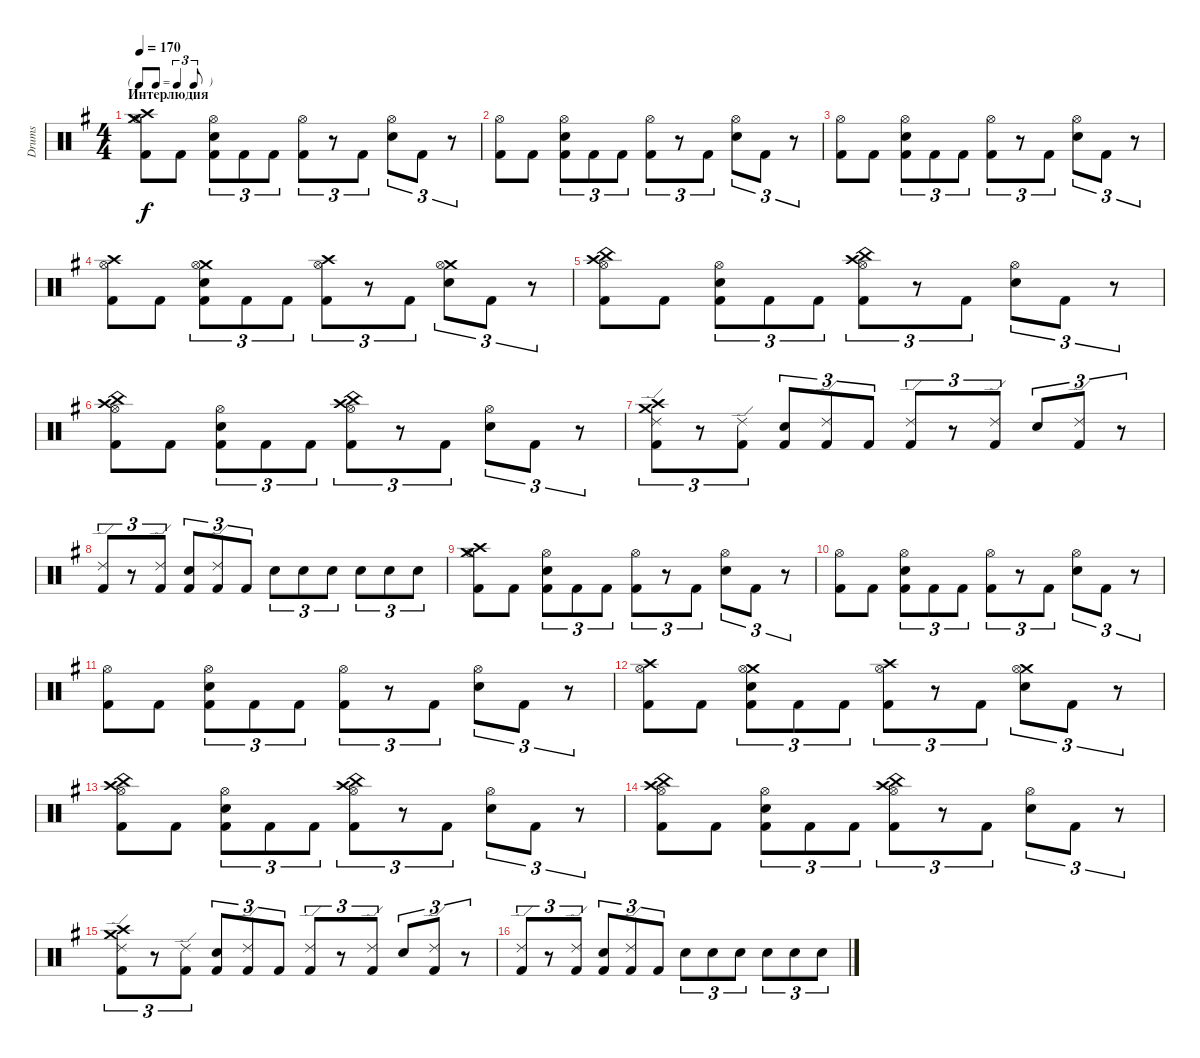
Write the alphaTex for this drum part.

\track ("Drums" "Drums") {instrument percussion}
\staff {score}
\articulation defaults
\ts (4 4)
\tf triplet8th
\section ("" "Интерлюдия")
\tempo 170
\clef neutral
\ks eminor
("Crash high (hit)" "Crash medium (hit)" "Hi-Hat (open)" "Kick (hit) 2").8{dy f} "Kick (hit) 2".8 ("Electric Snare (hit)" "Hi-Hat (open)" "Kick (hit) 2").8{tu (3 2)} "Kick (hit) 2".8{tu (3 2)} "Kick (hit) 2".8{tu (3 2)} ("Hi-Hat (open)" "Kick (hit) 2").8{tu (3 2)} r.8{tu (3 2)} "Kick (hit) 2".8{tu (3 2)} ("Electric Snare (hit)" "Hi-Hat (open)").8{tu (3 2)} "Kick (hit) 2".8{tu (3 2)} r.8{tu (3 2)} |
("Hi-Hat (open)" "Kick (hit) 2").8 "Kick (hit) 2".8 ("Electric Snare (hit)" "Hi-Hat (open)" "Kick (hit) 2").8{tu (3 2)} "Kick (hit) 2".8{tu (3 2)} "Kick (hit) 2".8{tu (3 2)} ("Hi-Hat (open)" "Kick (hit) 2").8{tu (3 2)} r.8{tu (3 2)} "Kick (hit) 2".8{tu (3 2)} ("Electric Snare (hit)" "Hi-Hat (open)").8{tu (3 2)} "Kick (hit) 2".8{tu (3 2)} r.8{tu (3 2)} |
("Hi-Hat (open)" "Kick (hit) 2").8 "Kick (hit) 2".8 ("Electric Snare (hit)" "Hi-Hat (open)" "Kick (hit) 2").8{tu (3 2)} "Kick (hit) 2".8{tu (3 2)} "Kick (hit) 2".8{tu (3 2)} ("Hi-Hat (open)" "Kick (hit) 2").8{tu (3 2)} r.8{tu (3 2)} "Kick (hit) 2".8{tu (3 2)} ("Electric Snare (hit)" "Hi-Hat (open)").8{tu (3 2)} "Kick (hit) 2".8{tu (3 2)} r.8{tu (3 2)} |
("Crash high (hit)" "Hi-Hat (open)" "Kick (hit) 2").8 "Kick (hit) 2".8 ("Crash medium (hit)" "Electric Snare (hit)" "Hi-Hat (open)" "Kick (hit) 2").8{tu (3 2)} "Kick (hit) 2".8{tu (3 2)} "Kick (hit) 2".8{tu (3 2)} ("Crash high (hit)" "Hi-Hat (open)" "Kick (hit) 2").8{tu (3 2)} r.8{tu (3 2)} "Kick (hit) 2".8{tu (3 2)} ("Crash medium (hit)" "Electric Snare (hit)" "Hi-Hat (open)").8{tu (3 2)} "Kick (hit) 2".8{tu (3 2)} r.8{tu (3 2)} |
("Crash high (hit)" "China (hit)" "Hi-Hat (open)" "Kick (hit) 2").8 "Kick (hit) 2".8 ("Electric Snare (hit)" "Hi-Hat (open)" "Kick (hit) 2").8{tu (3 2)} "Kick (hit) 2".8{tu (3 2)} "Kick (hit) 2".8{tu (3 2)} ("Crash high (hit)" "China (hit)" "Hi-Hat (open)" "Kick (hit) 2").8{tu (3 2)} r.8{tu (3 2)} "Kick (hit) 2".8{tu (3 2)} ("Electric Snare (hit)" "Hi-Hat (open)").8{tu (3 2)} "Kick (hit) 2".8{tu (3 2)} r.8{tu (3 2)} |
("Crash high (hit)" "China (hit)" "Hi-Hat (open)" "Kick (hit) 2").8 "Kick (hit) 2".8 ("Electric Snare (hit)" "Hi-Hat (open)" "Kick (hit) 2").8{tu (3 2)} "Kick (hit) 2".8{tu (3 2)} "Kick (hit) 2".8{tu (3 2)} ("Crash high (hit)" "China (hit)" "Hi-Hat (open)" "Kick (hit) 2").8{tu (3 2)} r.8{tu (3 2)} "Kick (hit) 2".8{tu (3 2)} ("Electric Snare (hit)" "Hi-Hat (open)").8{tu (3 2)} "Kick (hit) 2".8{tu (3 2)} r.8{tu (3 2)} |
("Crash high (hit)" "Crash medium (hit)" "Ride (edge) 2" "Kick (hit) 2").8{tu (3 2)} r.8{tu (3 2)} ("Ride (edge) 2" "Kick (hit) 2").8{tu (3 2)} ("Electric Snare (hit)" "Kick (hit) 2").8{tu (3 2)} ("Ride (edge) 2" "Kick (hit) 2").8{tu (3 2)} "Kick (hit) 2".8{tu (3 2)} ("Ride (edge) 2" "Kick (hit) 2").8{tu (3 2)} r.8{tu (3 2)} ("Ride (edge) 2" "Kick (hit) 2").8{tu (3 2)} "Electric Snare (hit)".8{tu (3 2)} ("Ride (edge) 2" "Kick (hit) 2").8{tu (3 2)} r.8{tu (3 2)} |
("Ride (edge) 2" "Kick (hit) 2").8{tu (3 2)} r.8{tu (3 2)} ("Ride (edge) 2" "Kick (hit) 2").8{tu (3 2)} ("Electric Snare (hit)" "Kick (hit) 2").8{tu (3 2)} ("Ride (edge) 2" "Kick (hit) 2").8{tu (3 2)} "Kick (hit) 2".8{tu (3 2)} "Electric Snare (hit)".8{tu (3 2)} "Electric Snare (hit)".8{tu (3 2)} "Electric Snare (hit)".8{tu (3 2)} "Electric Snare (hit)".8{tu (3 2)} "Electric Snare (hit)".8{tu (3 2)} "Electric Snare (hit)".8{tu (3 2)} |
("Crash high (hit)" "Crash medium (hit)" "Hi-Hat (open)" "Kick (hit) 2").8 "Kick (hit) 2".8 ("Electric Snare (hit)" "Hi-Hat (open)" "Kick (hit) 2").8{tu (3 2)} "Kick (hit) 2".8{tu (3 2)} "Kick (hit) 2".8{tu (3 2)} ("Hi-Hat (open)" "Kick (hit) 2").8{tu (3 2)} r.8{tu (3 2)} "Kick (hit) 2".8{tu (3 2)} ("Electric Snare (hit)" "Hi-Hat (open)").8{tu (3 2)} "Kick (hit) 2".8{tu (3 2)} r.8{tu (3 2)} |
("Hi-Hat (open)" "Kick (hit) 2").8 "Kick (hit) 2".8 ("Electric Snare (hit)" "Hi-Hat (open)" "Kick (hit) 2").8{tu (3 2)} "Kick (hit) 2".8{tu (3 2)} "Kick (hit) 2".8{tu (3 2)} ("Hi-Hat (open)" "Kick (hit) 2").8{tu (3 2)} r.8{tu (3 2)} "Kick (hit) 2".8{tu (3 2)} ("Electric Snare (hit)" "Hi-Hat (open)").8{tu (3 2)} "Kick (hit) 2".8{tu (3 2)} r.8{tu (3 2)} |
("Hi-Hat (open)" "Kick (hit) 2").8 "Kick (hit) 2".8 ("Electric Snare (hit)" "Hi-Hat (open)" "Kick (hit) 2").8{tu (3 2)} "Kick (hit) 2".8{tu (3 2)} "Kick (hit) 2".8{tu (3 2)} ("Hi-Hat (open)" "Kick (hit) 2").8{tu (3 2)} r.8{tu (3 2)} "Kick (hit) 2".8{tu (3 2)} ("Electric Snare (hit)" "Hi-Hat (open)").8{tu (3 2)} "Kick (hit) 2".8{tu (3 2)} r.8{tu (3 2)} |
("Crash high (hit)" "Hi-Hat (open)" "Kick (hit) 2").8 "Kick (hit) 2".8 ("Crash medium (hit)" "Electric Snare (hit)" "Hi-Hat (open)" "Kick (hit) 2").8{tu (3 2)} "Kick (hit) 2".8{tu (3 2)} "Kick (hit) 2".8{tu (3 2)} ("Crash high (hit)" "Hi-Hat (open)" "Kick (hit) 2").8{tu (3 2)} r.8{tu (3 2)} "Kick (hit) 2".8{tu (3 2)} ("Crash medium (hit)" "Electric Snare (hit)" "Hi-Hat (open)").8{tu (3 2)} "Kick (hit) 2".8{tu (3 2)} r.8{tu (3 2)} |
("Crash high (hit)" "China (hit)" "Hi-Hat (open)" "Kick (hit) 2").8 "Kick (hit) 2".8 ("Electric Snare (hit)" "Hi-Hat (open)" "Kick (hit) 2").8{tu (3 2)} "Kick (hit) 2".8{tu (3 2)} "Kick (hit) 2".8{tu (3 2)} ("Crash high (hit)" "China (hit)" "Hi-Hat (open)" "Kick (hit) 2").8{tu (3 2)} r.8{tu (3 2)} "Kick (hit) 2".8{tu (3 2)} ("Electric Snare (hit)" "Hi-Hat (open)").8{tu (3 2)} "Kick (hit) 2".8{tu (3 2)} r.8{tu (3 2)} |
("Crash high (hit)" "China (hit)" "Hi-Hat (open)" "Kick (hit) 2").8 "Kick (hit) 2".8 ("Electric Snare (hit)" "Hi-Hat (open)" "Kick (hit) 2").8{tu (3 2)} "Kick (hit) 2".8{tu (3 2)} "Kick (hit) 2".8{tu (3 2)} ("Crash high (hit)" "China (hit)" "Hi-Hat (open)" "Kick (hit) 2").8{tu (3 2)} r.8{tu (3 2)} "Kick (hit) 2".8{tu (3 2)} ("Electric Snare (hit)" "Hi-Hat (open)").8{tu (3 2)} "Kick (hit) 2".8{tu (3 2)} r.8{tu (3 2)} |
("Crash high (hit)" "Crash medium (hit)" "Ride (edge) 2" "Kick (hit) 2").8{tu (3 2)} r.8{tu (3 2)} ("Ride (edge) 2" "Kick (hit) 2").8{tu (3 2)} ("Electric Snare (hit)" "Kick (hit) 2").8{tu (3 2)} ("Ride (edge) 2" "Kick (hit) 2").8{tu (3 2)} "Kick (hit) 2".8{tu (3 2)} ("Ride (edge) 2" "Kick (hit) 2").8{tu (3 2)} r.8{tu (3 2)} ("Ride (edge) 2" "Kick (hit) 2").8{tu (3 2)} "Electric Snare (hit)".8{tu (3 2)} ("Ride (edge) 2" "Kick (hit) 2").8{tu (3 2)} r.8{tu (3 2)} |
("Ride (edge) 2" "Kick (hit) 2").8{tu (3 2)} r.8{tu (3 2)} ("Ride (edge) 2" "Kick (hit) 2").8{tu (3 2)} ("Electric Snare (hit)" "Kick (hit) 2").8{tu (3 2)} ("Ride (edge) 2" "Kick (hit) 2").8{tu (3 2)} "Kick (hit) 2".8{tu (3 2)} "Electric Snare (hit)".8{tu (3 2)} "Electric Snare (hit)".8{tu (3 2)} "Electric Snare (hit)".8{tu (3 2)} "Electric Snare (hit)".8{tu (3 2)} "Electric Snare (hit)".8{tu (3 2)} "Electric Snare (hit)".8{tu (3 2)}
